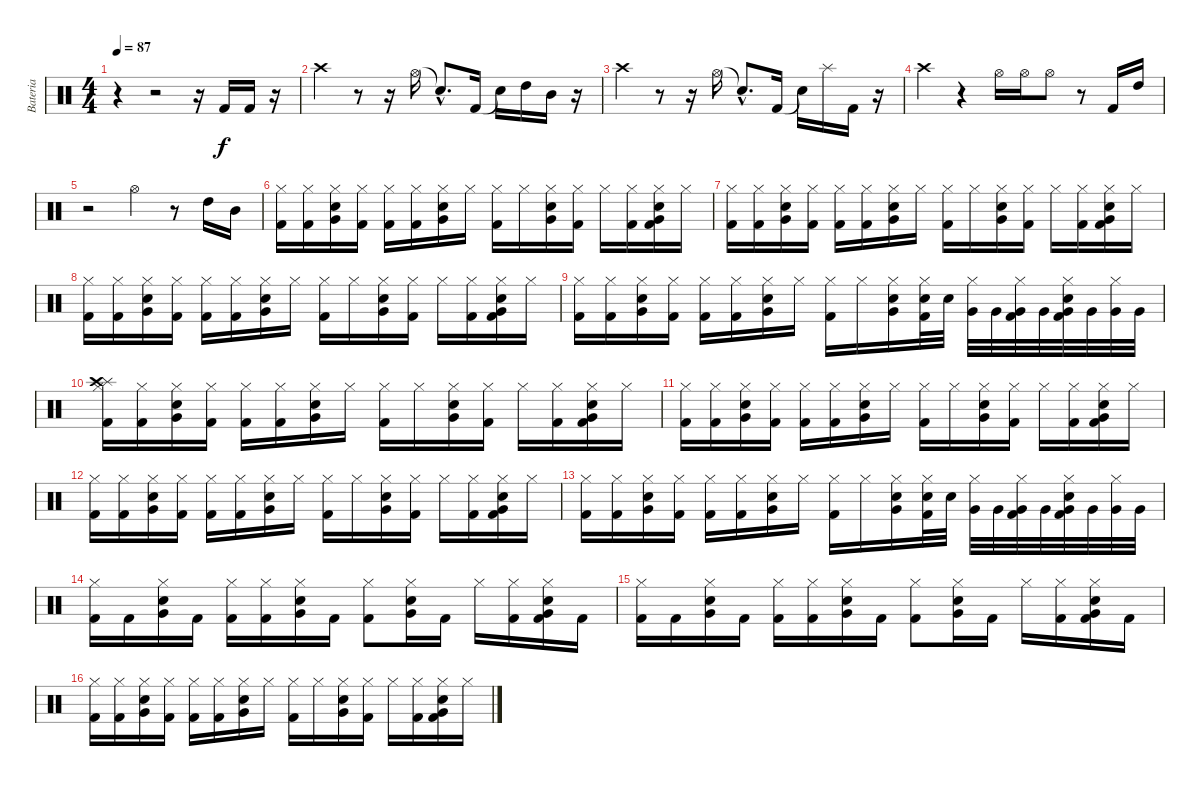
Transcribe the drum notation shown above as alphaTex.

\track ("Bateria" "Bateria") {instrument percussion}
\staff {score}
\articulation defaults
\ts (4 4)
\tempo 87
\clef neutral
\ks c
r.4{dy f} r.2 r.16 "Kick (hit) 2".16 "Kick (hit) 2".16 r.16 |
"Crash high (hit)".4 r.8 r.16 "Hi-Hat (open)".16 "Snare (hit)"{hac t}.8{d} "Kick (hit) 2".16 "Snare (hit)"{t}.16 "High Tom (hit)".16 "Mid Tom (hit)".16 r.16 |
"Crash high (hit)".4 r.8 r.16 "Hi-Hat (open)".16 "Snare (hit)"{hac t}.8{d} "Kick (hit) 2".16 "Snare (hit)"{t}.16 "Splash (hit)".16 "Kick (hit) 2".16 r.16 |
"Crash high (hit)".4 r.4 "Hi-Hat (open)".16 "Hi-Hat (open)".16 "Hi-Hat (open)".8 r.8 "Kick (hit) 2".16 "High Tom (hit)".16 |
r.2 "Hi-Hat (open)".4 r.8 "High Tom (hit)".16 "Mid Tom (hit)".16 |
("Hi-Hat (closed)" "Kick (hit) 2").16 ("Hi-Hat (closed)" "Kick (hit) 2").16 ("Hi-Hat (closed)" "Snare (hit) 2" "Very Low Tom (hit)").16 ("Hi-Hat (closed)" "Kick (hit) 2").16 ("Hi-Hat (closed)" "Kick (hit) 2").16 ("Hi-Hat (closed)" "Kick (hit) 2").16 ("Hi-Hat (closed)" "Snare (hit) 2" "Very Low Tom (hit)").16 "Hi-Hat (closed)".16 ("Hi-Hat (closed)" "Kick (hit) 2").16 "Hi-Hat (closed)".16 ("Hi-Hat (closed)" "Snare (hit) 2" "Very Low Tom (hit)").16 ("Hi-Hat (closed)" "Kick (hit) 2").16 "Hi-Hat (closed)".16 ("Hi-Hat (closed)" "Kick (hit) 2").16 ("Hi-Hat (closed)" "Kick (hit) 2" "Snare (hit) 2" "Very Low Tom (hit)").16 "Hi-Hat (closed)".16 |
("Hi-Hat (closed)" "Kick (hit) 2").16 ("Hi-Hat (closed)" "Kick (hit) 2").16 ("Hi-Hat (closed)" "Snare (hit) 2" "Very Low Tom (hit)").16 ("Hi-Hat (closed)" "Kick (hit) 2").16 ("Hi-Hat (closed)" "Kick (hit) 2").16 ("Hi-Hat (closed)" "Kick (hit) 2").16 ("Hi-Hat (closed)" "Snare (hit) 2" "Very Low Tom (hit)").16 "Hi-Hat (closed)".16 ("Hi-Hat (closed)" "Kick (hit) 2").16 "Hi-Hat (closed)".16 ("Hi-Hat (closed)" "Snare (hit) 2" "Very Low Tom (hit)").16 ("Hi-Hat (closed)" "Kick (hit) 2").16 "Hi-Hat (closed)".16 ("Hi-Hat (closed)" "Kick (hit) 2").16 ("Hi-Hat (closed)" "Kick (hit) 2" "Snare (hit) 2" "Very Low Tom (hit)").16 "Hi-Hat (closed)".16 |
("Hi-Hat (closed)" "Kick (hit) 2").16 ("Hi-Hat (closed)" "Kick (hit) 2").16 ("Hi-Hat (closed)" "Snare (hit) 2" "Very Low Tom (hit)").16 ("Hi-Hat (closed)" "Kick (hit) 2").16 ("Hi-Hat (closed)" "Kick (hit) 2").16 ("Hi-Hat (closed)" "Kick (hit) 2").16 ("Hi-Hat (closed)" "Snare (hit) 2" "Very Low Tom (hit)").16 "Hi-Hat (closed)".16 ("Hi-Hat (closed)" "Kick (hit) 2").16 "Hi-Hat (closed)".16 ("Hi-Hat (closed)" "Snare (hit) 2" "Very Low Tom (hit)").16 ("Hi-Hat (closed)" "Kick (hit) 2").16 "Hi-Hat (closed)".16 ("Hi-Hat (closed)" "Kick (hit) 2").16 ("Hi-Hat (closed)" "Kick (hit) 2" "Snare (hit) 2" "Very Low Tom (hit)").16 "Hi-Hat (closed)".16 |
("Hi-Hat (closed)" "Kick (hit) 2").16 ("Hi-Hat (closed)" "Kick (hit) 2").16 ("Hi-Hat (closed)" "Snare (hit) 2" "Very Low Tom (hit)").16 ("Hi-Hat (closed)" "Kick (hit) 2").16 ("Hi-Hat (closed)" "Kick (hit) 2").16 ("Hi-Hat (closed)" "Kick (hit) 2").16 ("Hi-Hat (closed)" "Snare (hit) 2" "Very Low Tom (hit)").16 "Hi-Hat (closed)".16 ("Hi-Hat (closed)" "Kick (hit) 2").16 "Hi-Hat (closed)".16 ("Hi-Hat (closed)" "Snare (hit) 2" "Very Low Tom (hit)").16 ("Hi-Hat (closed)" "Kick (hit) 2" "Snare (hit) 2").32 "Snare (hit) 2".32 ("Hi-Hat (closed)" "Very Low Tom (hit)").32 "Very Low Tom (hit)".32 ("Hi-Hat (closed)" "Kick (hit) 2" "Very Low Tom (hit)").32 "Very Low Tom (hit)".32 ("Hi-Hat (closed)" "Kick (hit) 2" "Snare (hit) 2" "Very Low Tom (hit)").32 "Very Low Tom (hit)".32 ("Hi-Hat (closed)" "Very Low Tom (hit)").32 "Very Low Tom (hit)".32 |
("Hi-Hat (closed)" "Kick (hit) 2" "Splash (hit)" "Crash high (hit)").16 ("Hi-Hat (closed)" "Kick (hit) 2").16 ("Hi-Hat (closed)" "Snare (hit) 2" "Very Low Tom (hit)").16 ("Hi-Hat (closed)" "Kick (hit) 2").16 ("Hi-Hat (closed)" "Kick (hit) 2").16 ("Hi-Hat (closed)" "Kick (hit) 2").16 ("Hi-Hat (closed)" "Snare (hit) 2" "Very Low Tom (hit)").16 "Hi-Hat (closed)".16 ("Hi-Hat (closed)" "Kick (hit) 2").16 "Hi-Hat (closed)".16 ("Hi-Hat (closed)" "Snare (hit) 2" "Very Low Tom (hit)").16 ("Hi-Hat (closed)" "Kick (hit) 2").16 "Hi-Hat (closed)".16 ("Hi-Hat (closed)" "Kick (hit) 2").16 ("Hi-Hat (closed)" "Kick (hit) 2" "Snare (hit) 2" "Very Low Tom (hit)").16 "Hi-Hat (closed)".16 |
("Hi-Hat (closed)" "Kick (hit) 2").16 ("Hi-Hat (closed)" "Kick (hit) 2").16 ("Hi-Hat (closed)" "Snare (hit) 2" "Very Low Tom (hit)").16 ("Hi-Hat (closed)" "Kick (hit) 2").16 ("Hi-Hat (closed)" "Kick (hit) 2").16 ("Hi-Hat (closed)" "Kick (hit) 2").16 ("Hi-Hat (closed)" "Snare (hit) 2" "Very Low Tom (hit)").16 "Hi-Hat (closed)".16 ("Hi-Hat (closed)" "Kick (hit) 2").16 "Hi-Hat (closed)".16 ("Hi-Hat (closed)" "Snare (hit) 2" "Very Low Tom (hit)").16 ("Hi-Hat (closed)" "Kick (hit) 2").16 "Hi-Hat (closed)".16 ("Hi-Hat (closed)" "Kick (hit) 2").16 ("Hi-Hat (closed)" "Kick (hit) 2" "Snare (hit) 2" "Very Low Tom (hit)").16 "Hi-Hat (closed)".16 |
("Hi-Hat (closed)" "Kick (hit) 2").16 ("Hi-Hat (closed)" "Kick (hit) 2").16 ("Hi-Hat (closed)" "Snare (hit) 2" "Very Low Tom (hit)").16 ("Hi-Hat (closed)" "Kick (hit) 2").16 ("Hi-Hat (closed)" "Kick (hit) 2").16 ("Hi-Hat (closed)" "Kick (hit) 2").16 ("Hi-Hat (closed)" "Snare (hit) 2" "Very Low Tom (hit)").16 "Hi-Hat (closed)".16 ("Hi-Hat (closed)" "Kick (hit) 2").16 "Hi-Hat (closed)".16 ("Hi-Hat (closed)" "Snare (hit) 2" "Very Low Tom (hit)").16 ("Hi-Hat (closed)" "Kick (hit) 2").16 "Hi-Hat (closed)".16 ("Hi-Hat (closed)" "Kick (hit) 2").16 ("Hi-Hat (closed)" "Kick (hit) 2" "Snare (hit) 2" "Very Low Tom (hit)").16 "Hi-Hat (closed)".16 |
("Hi-Hat (closed)" "Kick (hit) 2").16 ("Hi-Hat (closed)" "Kick (hit) 2").16 ("Hi-Hat (closed)" "Snare (hit) 2" "Very Low Tom (hit)").16 ("Hi-Hat (closed)" "Kick (hit) 2").16 ("Hi-Hat (closed)" "Kick (hit) 2").16 ("Hi-Hat (closed)" "Kick (hit) 2").16 ("Hi-Hat (closed)" "Snare (hit) 2" "Very Low Tom (hit)").16 "Hi-Hat (closed)".16 ("Hi-Hat (closed)" "Kick (hit) 2").16 "Hi-Hat (closed)".16 ("Hi-Hat (closed)" "Snare (hit) 2" "Very Low Tom (hit)").16 ("Hi-Hat (closed)" "Kick (hit) 2" "Snare (hit) 2").32 "Snare (hit) 2".32 ("Hi-Hat (closed)" "Very Low Tom (hit)").32 "Very Low Tom (hit)".32 ("Hi-Hat (closed)" "Kick (hit) 2" "Very Low Tom (hit)").32 "Very Low Tom (hit)".32 ("Hi-Hat (closed)" "Kick (hit) 2" "Snare (hit) 2" "Very Low Tom (hit)").32 "Very Low Tom (hit)".32 ("Hi-Hat (closed)" "Very Low Tom (hit)").32 "Very Low Tom (hit)".32 |
("Hi-Hat (closed)" "Kick (hit) 2").16 "Kick (hit) 2".16 ("Hi-Hat (closed)" "Snare (hit) 2" "Very Low Tom (hit)").16 "Kick (hit) 2".16 ("Hi-Hat (closed)" "Kick (hit) 2").16 ("Hi-Hat (closed)" "Kick (hit) 2").16 ("Hi-Hat (closed)" "Snare (hit) 2" "Very Low Tom (hit)").16 "Kick (hit) 2".16 ("Hi-Hat (closed)" "Kick (hit) 2").8 ("Hi-Hat (closed)" "Snare (hit) 2" "Very Low Tom (hit)").16 "Kick (hit) 2".16 "Hi-Hat (closed)".16 ("Hi-Hat (closed)" "Kick (hit) 2").16 ("Hi-Hat (closed)" "Kick (hit) 2" "Snare (hit) 2" "Very Low Tom (hit)").16 "Kick (hit) 2".16 |
("Hi-Hat (closed)" "Kick (hit) 2").16 "Kick (hit) 2".16 ("Hi-Hat (closed)" "Snare (hit) 2" "Very Low Tom (hit)").16 "Kick (hit) 2".16 ("Hi-Hat (closed)" "Kick (hit) 2").16 ("Hi-Hat (closed)" "Kick (hit) 2").16 ("Hi-Hat (closed)" "Snare (hit) 2" "Very Low Tom (hit)").16 "Kick (hit) 2".16 ("Hi-Hat (closed)" "Kick (hit) 2").8 ("Hi-Hat (closed)" "Snare (hit) 2" "Very Low Tom (hit)").16 "Kick (hit) 2".16 "Hi-Hat (closed)".16 ("Hi-Hat (closed)" "Kick (hit) 2").16 ("Hi-Hat (closed)" "Kick (hit) 2" "Snare (hit) 2" "Very Low Tom (hit)").16 "Kick (hit) 2".16 |
("Hi-Hat (closed)" "Kick (hit) 2").16 ("Hi-Hat (closed)" "Kick (hit) 2").16 ("Hi-Hat (closed)" "Snare (hit) 2" "Very Low Tom (hit)").16 ("Hi-Hat (closed)" "Kick (hit) 2").16 ("Hi-Hat (closed)" "Kick (hit) 2").16 ("Hi-Hat (closed)" "Kick (hit) 2").16 ("Hi-Hat (closed)" "Snare (hit) 2" "Very Low Tom (hit)").16 "Hi-Hat (closed)".16 ("Hi-Hat (closed)" "Kick (hit) 2").16 "Hi-Hat (closed)".16 ("Hi-Hat (closed)" "Snare (hit) 2" "Very Low Tom (hit)").16 ("Hi-Hat (closed)" "Kick (hit) 2").16 "Hi-Hat (closed)".16 ("Hi-Hat (closed)" "Kick (hit) 2").16 ("Hi-Hat (closed)" "Kick (hit) 2" "Snare (hit) 2" "Very Low Tom (hit)").16 "Hi-Hat (closed)".16
